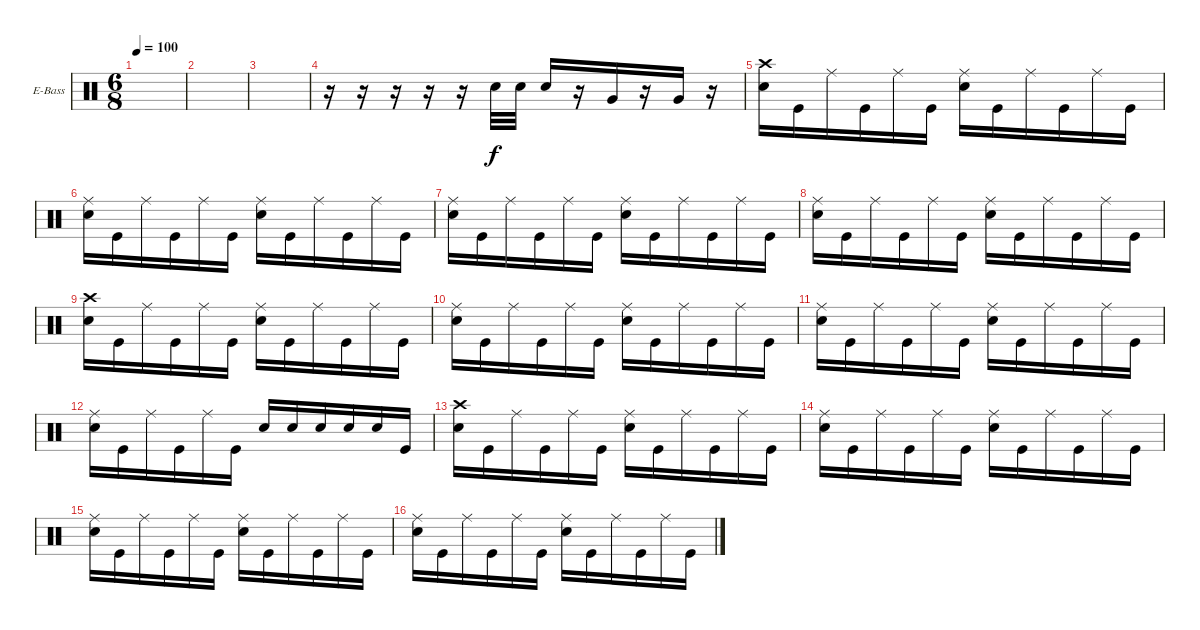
\defaultSystemsLayout 4
\bracketExtendMode groupsimilarinstruments
\firstSystemTrackNameOrientation horizontal
\otherSystemsTrackNameOrientation horizontal
\track ("Drums" "E-Bass") {instrument percussion}
\staff {score}
\articulation defaults
\ts (6 8)
\tempo 100
\clef neutral
\ks c
|
|
|
r.16 r.16 r.16 r.16 r.16 "Snare (hit) 2".32 "Snare (hit) 2".32 "Snare (hit) 2".16 r.16 "Very Low Tom (hit)".16 r.16 "Very Low Tom (hit)".16 r.16 |
("Snare (hit) 2" "Crash high (hit)").16 "Kick (hit)".16 "Ride (middle)".16 "Kick (hit)".16 "Ride (middle)".16 "Kick (hit)".16 ("Snare (hit) 2" "Ride (middle)").16 "Kick (hit)".16 "Ride (middle)".16 "Kick (hit)".16 "Ride (middle)".16 "Kick (hit)".16 |
("Snare (hit) 2" "Ride (middle)").16 "Kick (hit)".16 "Ride (middle)".16 "Kick (hit)".16 "Ride (middle)".16 "Kick (hit)".16 ("Snare (hit) 2" "Ride (middle)").16 "Kick (hit)".16 "Ride (middle)".16 "Kick (hit)".16 "Ride (middle)".16 "Kick (hit)".16 |
("Snare (hit) 2" "Ride (middle)").16 "Kick (hit)".16 "Ride (middle)".16 "Kick (hit)".16 "Ride (middle)".16 "Kick (hit)".16 ("Snare (hit) 2" "Ride (middle)").16 "Kick (hit)".16 "Ride (middle)".16 "Kick (hit)".16 "Ride (middle)".16 "Kick (hit)".16 |
("Snare (hit) 2" "Ride (middle)").16 "Kick (hit)".16 "Ride (middle)".16 "Kick (hit)".16 "Ride (middle)".16 "Kick (hit)".16 ("Snare (hit) 2" "Ride (middle)").16 "Kick (hit)".16 "Ride (middle)".16 "Kick (hit)".16 "Ride (middle)".16 "Kick (hit)".16 |
("Snare (hit) 2" "Crash high (hit)").16 "Kick (hit)".16 "Ride (middle)".16 "Kick (hit)".16 "Ride (middle)".16 "Kick (hit)".16 ("Snare (hit) 2" "Ride (middle)").16 "Kick (hit)".16 "Ride (middle)".16 "Kick (hit)".16 "Ride (middle)".16 "Kick (hit)".16 |
("Snare (hit) 2" "Ride (middle)").16 "Kick (hit)".16 "Ride (middle)".16 "Kick (hit)".16 "Ride (middle)".16 "Kick (hit)".16 ("Snare (hit) 2" "Ride (middle)").16 "Kick (hit)".16 "Ride (middle)".16 "Kick (hit)".16 "Ride (middle)".16 "Kick (hit)".16 |
("Snare (hit) 2" "Ride (middle)").16 "Kick (hit)".16 "Ride (middle)".16 "Kick (hit)".16 "Ride (middle)".16 "Kick (hit)".16 ("Snare (hit) 2" "Ride (middle)").16 "Kick (hit)".16 "Ride (middle)".16 "Kick (hit)".16 "Ride (middle)".16 "Kick (hit)".16 |
("Snare (hit) 2" "Ride (middle)").16 "Kick (hit)".16 "Ride (middle)".16 "Kick (hit)".16 "Ride (middle)".16 "Kick (hit)".16 "Snare (hit) 2".16 "Snare (hit) 2".16 "Snare (hit) 2".16 "Snare (hit) 2".16 "Snare (hit) 2".16 "Kick (hit)".16 |
("Snare (hit) 2" "Crash high (hit)").16 "Kick (hit)".16 "Ride (middle)".16 "Kick (hit)".16 "Ride (middle)".16 "Kick (hit)".16 ("Snare (hit) 2" "Ride (middle)").16 "Kick (hit)".16 "Ride (middle)".16 "Kick (hit)".16 "Ride (middle)".16 "Kick (hit)".16 |
("Snare (hit) 2" "Ride (middle)").16 "Kick (hit)".16 "Ride (middle)".16 "Kick (hit)".16 "Ride (middle)".16 "Kick (hit)".16 ("Snare (hit) 2" "Ride (middle)").16 "Kick (hit)".16 "Ride (middle)".16 "Kick (hit)".16 "Ride (middle)".16 "Kick (hit)".16 |
("Snare (hit) 2" "Ride (middle)").16 "Kick (hit)".16 "Ride (middle)".16 "Kick (hit)".16 "Ride (middle)".16 "Kick (hit)".16 ("Snare (hit) 2" "Ride (middle)").16 "Kick (hit)".16 "Ride (middle)".16 "Kick (hit)".16 "Ride (middle)".16 "Kick (hit)".16 |
("Snare (hit) 2" "Ride (middle)").16 "Kick (hit)".16 "Ride (middle)".16 "Kick (hit)".16 "Ride (middle)".16 "Kick (hit)".16 ("Snare (hit) 2" "Ride (middle)").16 "Kick (hit)".16 "Ride (middle)".16 "Kick (hit)".16 "Ride (middle)".16 "Kick (hit)".16
